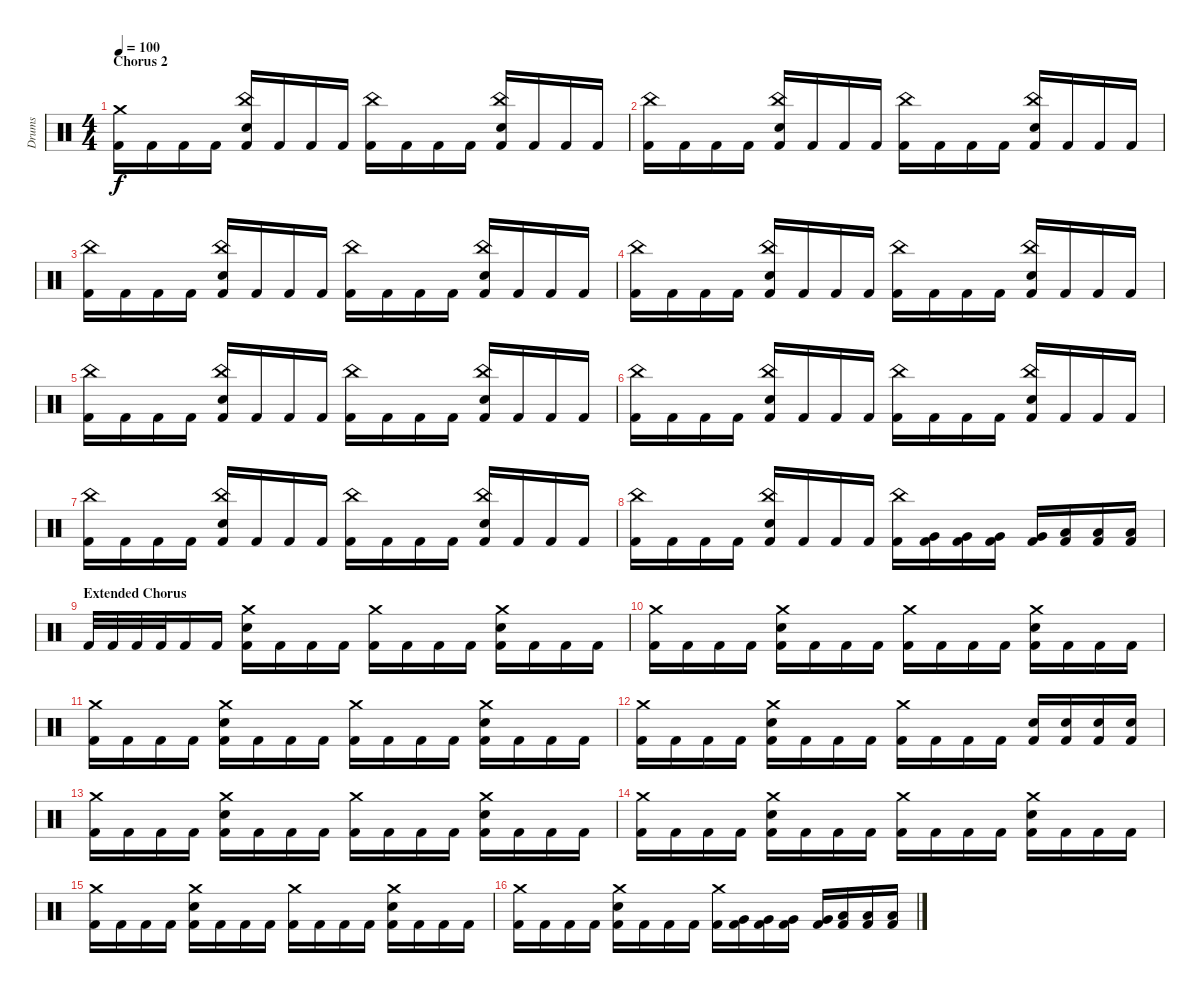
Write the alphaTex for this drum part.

\track ("Drums" "Drums") {instrument percussion}
\staff {score}
\articulation defaults
\ts (4 4)
\section ("" "Chorus 2")
\tempo 100
\clef neutral
\ks c
("Crash medium (hit)" "Kick (hit) 2").16{dy f} "Kick (hit) 2".16 "Kick (hit) 2".16 "Kick (hit) 2".16 ("China (hit)" "Snare (hit) 2" "Kick (hit) 2").16 "Kick (hit) 2".16 "Kick (hit) 2".16 "Kick (hit) 2".16 ("China (hit)" "Kick (hit) 2").16 "Kick (hit) 2".16 "Kick (hit) 2".16 "Kick (hit) 2".16 ("China (hit)" "Snare (hit) 2" "Kick (hit) 2").16 "Kick (hit) 2".16 "Kick (hit) 2".16 "Kick (hit) 2".16 |
("China (hit)" "Kick (hit) 2").16 "Kick (hit) 2".16 "Kick (hit) 2".16 "Kick (hit) 2".16 ("China (hit)" "Snare (hit) 2" "Kick (hit) 2").16 "Kick (hit) 2".16 "Kick (hit) 2".16 "Kick (hit) 2".16 ("China (hit)" "Kick (hit) 2").16 "Kick (hit) 2".16 "Kick (hit) 2".16 "Kick (hit) 2".16 ("China (hit)" "Snare (hit) 2" "Kick (hit) 2").16 "Kick (hit) 2".16 "Kick (hit) 2".16 "Kick (hit) 2".16 |
("China (hit)" "Kick (hit) 2").16 "Kick (hit) 2".16 "Kick (hit) 2".16 "Kick (hit) 2".16 ("China (hit)" "Snare (hit) 2" "Kick (hit) 2").16 "Kick (hit) 2".16 "Kick (hit) 2".16 "Kick (hit) 2".16 ("China (hit)" "Kick (hit) 2").16 "Kick (hit) 2".16 "Kick (hit) 2".16 "Kick (hit) 2".16 ("China (hit)" "Snare (hit) 2" "Kick (hit) 2").16 "Kick (hit) 2".16 "Kick (hit) 2".16 "Kick (hit) 2".16 |
("China (hit)" "Kick (hit) 2").16 "Kick (hit) 2".16 "Kick (hit) 2".16 "Kick (hit) 2".16 ("China (hit)" "Snare (hit) 2" "Kick (hit) 2").16 "Kick (hit) 2".16 "Kick (hit) 2".16 "Kick (hit) 2".16 ("China (hit)" "Kick (hit) 2").16 "Kick (hit) 2".16 "Kick (hit) 2".16 "Kick (hit) 2".16 ("China (hit)" "Snare (hit) 2" "Kick (hit) 2").16 "Kick (hit) 2".16 "Kick (hit) 2".16 "Kick (hit) 2".16 |
("China (hit)" "Kick (hit) 2").16 "Kick (hit) 2".16 "Kick (hit) 2".16 "Kick (hit) 2".16 ("China (hit)" "Snare (hit) 2" "Kick (hit) 2").16 "Kick (hit) 2".16 "Kick (hit) 2".16 "Kick (hit) 2".16 ("China (hit)" "Kick (hit) 2").16 "Kick (hit) 2".16 "Kick (hit) 2".16 "Kick (hit) 2".16 ("China (hit)" "Snare (hit) 2" "Kick (hit) 2").16 "Kick (hit) 2".16 "Kick (hit) 2".16 "Kick (hit) 2".16 |
("China (hit)" "Kick (hit) 2").16 "Kick (hit) 2".16 "Kick (hit) 2".16 "Kick (hit) 2".16 ("China (hit)" "Snare (hit) 2" "Kick (hit) 2").16 "Kick (hit) 2".16 "Kick (hit) 2".16 "Kick (hit) 2".16 ("China (hit)" "Kick (hit) 2").16 "Kick (hit) 2".16 "Kick (hit) 2".16 "Kick (hit) 2".16 ("China (hit)" "Snare (hit) 2" "Kick (hit) 2").16 "Kick (hit) 2".16 "Kick (hit) 2".16 "Kick (hit) 2".16 |
("China (hit)" "Kick (hit) 2").16 "Kick (hit) 2".16 "Kick (hit) 2".16 "Kick (hit) 2".16 ("China (hit)" "Snare (hit) 2" "Kick (hit) 2").16 "Kick (hit) 2".16 "Kick (hit) 2".16 "Kick (hit) 2".16 ("China (hit)" "Kick (hit) 2").16 "Kick (hit) 2".16 "Kick (hit) 2".16 "Kick (hit) 2".16 ("China (hit)" "Snare (hit) 2" "Kick (hit) 2").16 "Kick (hit) 2".16 "Kick (hit) 2".16 "Kick (hit) 2".16 |
("China (hit)" "Kick (hit) 2").16 "Kick (hit) 2".16 "Kick (hit) 2".16 "Kick (hit) 2".16 ("China (hit)" "Snare (hit) 2" "Kick (hit) 2").16 "Kick (hit) 2".16 "Kick (hit) 2".16 "Kick (hit) 2".16 ("China (hit)" "Kick (hit) 2").16 ("Very Low Tom (hit)" "Kick (hit) 2").16 ("Very Low Tom (hit)" "Kick (hit) 2").16 ("Very Low Tom (hit)" "Kick (hit) 2").16 ("Very Low Tom (hit)" "Kick (hit) 2").16 ("Low Floor Tom (hit)" "Kick (hit) 2").16 ("Low Floor Tom (hit)" "Kick (hit) 2").16 ("Low Floor Tom (hit)" "Kick (hit) 2").16 |
\section ("" "Extended Chorus")
"Kick (hit) 2".32 "Kick (hit) 2".32 "Kick (hit) 2".32 "Kick (hit) 2".32 "Kick (hit) 2".16 "Kick (hit) 2".16 ("Crash medium (hit)" "Snare (hit) 2" "Kick (hit) 2").16 "Kick (hit) 2".16 "Kick (hit) 2".16 "Kick (hit) 2".16 ("Crash medium (hit)" "Kick (hit) 2").16 "Kick (hit) 2".16 "Kick (hit) 2".16 "Kick (hit) 2".16 ("Crash medium (hit)" "Snare (hit) 2" "Kick (hit) 2").16 "Kick (hit) 2".16 "Kick (hit) 2".16 "Kick (hit) 2".16 |
("Crash medium (hit)" "Kick (hit) 2").16 "Kick (hit) 2".16 "Kick (hit) 2".16 "Kick (hit) 2".16 ("Crash medium (hit)" "Snare (hit) 2" "Kick (hit) 2").16 "Kick (hit) 2".16 "Kick (hit) 2".16 "Kick (hit) 2".16 ("Crash medium (hit)" "Kick (hit) 2").16 "Kick (hit) 2".16 "Kick (hit) 2".16 "Kick (hit) 2".16 ("Crash medium (hit)" "Snare (hit) 2" "Kick (hit) 2").16 "Kick (hit) 2".16 "Kick (hit) 2".16 "Kick (hit) 2".16 |
("Crash medium (hit)" "Kick (hit) 2").16 "Kick (hit) 2".16 "Kick (hit) 2".16 "Kick (hit) 2".16 ("Crash medium (hit)" "Snare (hit) 2" "Kick (hit) 2").16 "Kick (hit) 2".16 "Kick (hit) 2".16 "Kick (hit) 2".16 ("Crash medium (hit)" "Kick (hit) 2").16 "Kick (hit) 2".16 "Kick (hit) 2".16 "Kick (hit) 2".16 ("Crash medium (hit)" "Snare (hit) 2" "Kick (hit) 2").16 "Kick (hit) 2".16 "Kick (hit) 2".16 "Kick (hit) 2".16 |
("Crash medium (hit)" "Kick (hit) 2").16 "Kick (hit) 2".16 "Kick (hit) 2".16 "Kick (hit) 2".16 ("Crash medium (hit)" "Snare (hit) 2" "Kick (hit) 2").16 "Kick (hit) 2".16 "Kick (hit) 2".16 "Kick (hit) 2".16 ("Crash medium (hit)" "Kick (hit) 2").16 "Kick (hit) 2".16 "Kick (hit) 2".16 "Kick (hit) 2".16 ("Snare (hit) 2" "Kick (hit) 2").16 ("Snare (hit) 2" "Kick (hit) 2").16 ("Snare (hit) 2" "Kick (hit) 2").16 ("Snare (hit) 2" "Kick (hit) 2").16 |
("Crash medium (hit)" "Kick (hit) 2").16 "Kick (hit) 2".16 "Kick (hit) 2".16 "Kick (hit) 2".16 ("Crash medium (hit)" "Snare (hit) 2" "Kick (hit) 2").16 "Kick (hit) 2".16 "Kick (hit) 2".16 "Kick (hit) 2".16 ("Crash medium (hit)" "Kick (hit) 2").16 "Kick (hit) 2".16 "Kick (hit) 2".16 "Kick (hit) 2".16 ("Crash medium (hit)" "Snare (hit) 2" "Kick (hit) 2").16 "Kick (hit) 2".16 "Kick (hit) 2".16 "Kick (hit) 2".16 |
("Crash medium (hit)" "Kick (hit) 2").16 "Kick (hit) 2".16 "Kick (hit) 2".16 "Kick (hit) 2".16 ("Crash medium (hit)" "Snare (hit) 2" "Kick (hit) 2").16 "Kick (hit) 2".16 "Kick (hit) 2".16 "Kick (hit) 2".16 ("Crash medium (hit)" "Kick (hit) 2").16 "Kick (hit) 2".16 "Kick (hit) 2".16 "Kick (hit) 2".16 ("Crash medium (hit)" "Snare (hit) 2" "Kick (hit) 2").16 "Kick (hit) 2".16 "Kick (hit) 2".16 "Kick (hit) 2".16 |
("Crash medium (hit)" "Kick (hit) 2").16 "Kick (hit) 2".16 "Kick (hit) 2".16 "Kick (hit) 2".16 ("Crash medium (hit)" "Snare (hit) 2" "Kick (hit) 2").16 "Kick (hit) 2".16 "Kick (hit) 2".16 "Kick (hit) 2".16 ("Crash medium (hit)" "Kick (hit) 2").16 "Kick (hit) 2".16 "Kick (hit) 2".16 "Kick (hit) 2".16 ("Crash medium (hit)" "Snare (hit) 2" "Kick (hit) 2").16 "Kick (hit) 2".16 "Kick (hit) 2".16 "Kick (hit) 2".16 |
("Crash medium (hit)" "Kick (hit) 2").16 "Kick (hit) 2".16 "Kick (hit) 2".16 "Kick (hit) 2".16 ("Crash medium (hit)" "Snare (hit) 2" "Kick (hit) 2").16 "Kick (hit) 2".16 "Kick (hit) 2".16 "Kick (hit) 2".16 ("Crash medium (hit)" "Kick (hit) 2").16 ("Very Low Tom (hit)" "Kick (hit) 2").16 ("Very Low Tom (hit)" "Kick (hit) 2").16 ("Very Low Tom (hit)" "Kick (hit) 2").16 ("Very Low Tom (hit)" "Kick (hit) 2").16 ("Low Floor Tom (hit)" "Kick (hit) 2").16 ("Low Floor Tom (hit)" "Kick (hit) 2").16 ("Low Floor Tom (hit)" "Kick (hit) 2").16
